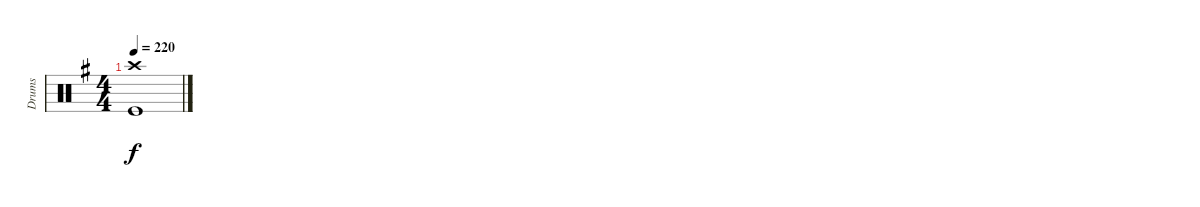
\track ("Drums" "Drums") {instrument percussion}
\staff {score}
\articulation defaults
\ts (4 4)
\tempo 220
\clef neutral
\ks eminor
("Kick (hit)" "Crash high (hit)").1{dy f}
